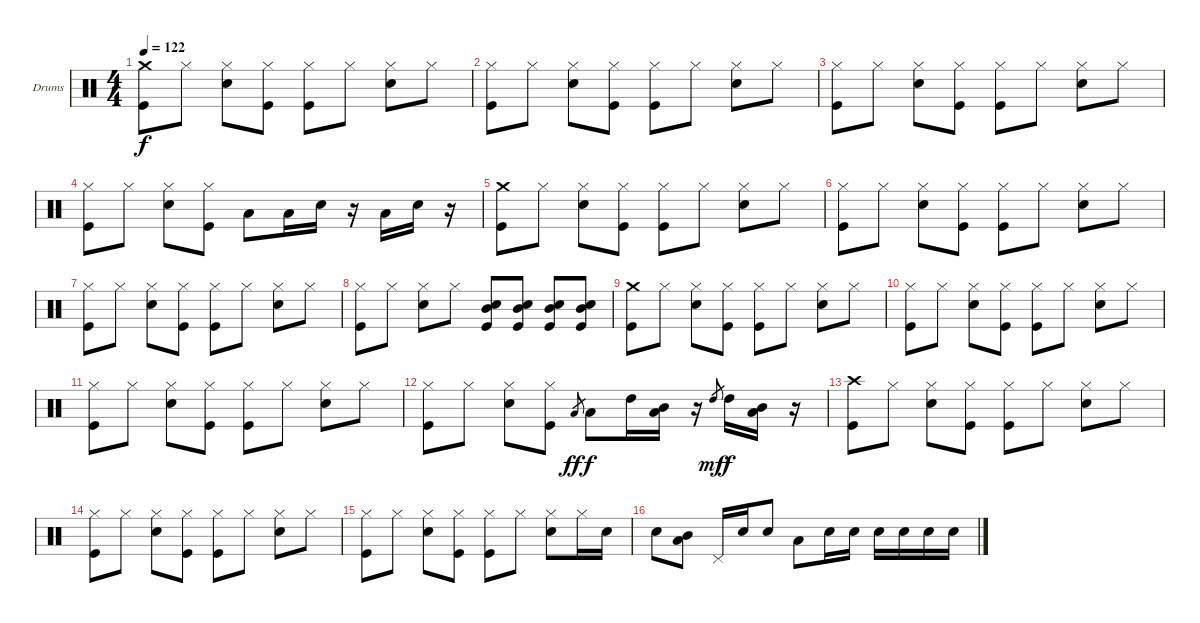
\bracketExtendMode groupsimilarinstruments
\firstSystemTrackNameOrientation horizontal
\otherSystemsTrackNameOrientation horizontal
\track ("Drumkit" "Drums") {instrument percussion}
\staff {score}
\articulation defaults
\ts (4 4)
\tempo 122
\clef neutral
\ks c
("Crash medium (hit)" "Kick (hit)").8{dy f} "Hi-Hat (closed)".8 ("Hi-Hat (closed)" "Snare (hit) 2").8 ("Hi-Hat (closed)" "Kick (hit)").8 ("Hi-Hat (closed)" "Kick (hit)").8 "Hi-Hat (closed)".8 ("Hi-Hat (closed)" "Snare (hit) 2").8 "Hi-Hat (closed)".8 |
("Hi-Hat (closed)" "Kick (hit)").8 "Hi-Hat (closed)".8 ("Hi-Hat (closed)" "Snare (hit) 2").8 ("Hi-Hat (closed)" "Kick (hit)").8 ("Hi-Hat (closed)" "Kick (hit)").8 "Hi-Hat (closed)".8 ("Hi-Hat (closed)" "Snare (hit) 2").8 "Hi-Hat (closed)".8 |
("Hi-Hat (closed)" "Kick (hit)").8 "Hi-Hat (closed)".8 ("Hi-Hat (closed)" "Snare (hit) 2").8 ("Hi-Hat (closed)" "Kick (hit)").8 ("Hi-Hat (closed)" "Kick (hit)").8 "Hi-Hat (closed)".8 ("Hi-Hat (closed)" "Snare (hit) 2").8 "Hi-Hat (closed)".8 |
("Hi-Hat (closed)" "Kick (hit)").8 "Hi-Hat (closed)".8 ("Hi-Hat (closed)" "Snare (hit) 2").8 ("Hi-Hat (closed)" "Kick (hit)").8 "Low Tom (hit)".8 "Low Tom (hit)".16 "Snare (hit) 2".16 r.16 "Low Tom (hit)".16 "Snare (hit) 2".16 r.16 |
("Crash medium (hit)" "Kick (hit)").8 "Hi-Hat (closed)".8 ("Hi-Hat (closed)" "Snare (hit) 2").8 ("Hi-Hat (closed)" "Kick (hit)").8 ("Hi-Hat (closed)" "Kick (hit)").8 "Hi-Hat (closed)".8 ("Hi-Hat (closed)" "Snare (hit) 2").8 "Hi-Hat (closed)".8 |
("Hi-Hat (closed)" "Kick (hit)").8 "Hi-Hat (closed)".8 ("Hi-Hat (closed)" "Snare (hit) 2").8 ("Hi-Hat (closed)" "Kick (hit)").8 ("Hi-Hat (closed)" "Kick (hit)").8 "Hi-Hat (closed)".8 ("Hi-Hat (closed)" "Snare (hit) 2").8 "Hi-Hat (closed)".8 |
("Hi-Hat (closed)" "Kick (hit)").8 "Hi-Hat (closed)".8 ("Hi-Hat (closed)" "Snare (hit) 2").8 ("Hi-Hat (closed)" "Kick (hit)").8 ("Hi-Hat (closed)" "Kick (hit)").8 "Hi-Hat (closed)".8 ("Hi-Hat (closed)" "Snare (hit) 2").8 "Hi-Hat (closed)".8 |
("Hi-Hat (closed)" "Kick (hit)").8 "Hi-Hat (closed)".8 ("Hi-Hat (closed)" "Snare (hit) 2").8 "Hi-Hat (closed)".8 ("Mid Tom (hit)" "Snare (hit) 2" "Kick (hit)").8 ("Mid Tom (hit)" "Snare (hit) 2" "Kick (hit)").8 ("Mid Tom (hit)" "Snare (hit) 2" "Kick (hit)").8 ("Mid Tom (hit)" "Snare (hit) 2" "Kick (hit)").8 |
("Crash medium (hit)" "Kick (hit)").8 "Hi-Hat (closed)".8 ("Hi-Hat (closed)" "Snare (hit) 2").8 ("Hi-Hat (closed)" "Kick (hit)").8 ("Hi-Hat (closed)" "Kick (hit)").8 "Hi-Hat (closed)".8 ("Hi-Hat (closed)" "Snare (hit) 2").8 "Hi-Hat (closed)".8 |
("Hi-Hat (closed)" "Kick (hit)").8 "Hi-Hat (closed)".8 ("Hi-Hat (closed)" "Snare (hit) 2").8 ("Hi-Hat (closed)" "Kick (hit)").8 ("Hi-Hat (closed)" "Kick (hit)").8 "Hi-Hat (closed)".8 ("Hi-Hat (closed)" "Snare (hit) 2").8 "Hi-Hat (closed)".8 |
("Hi-Hat (closed)" "Kick (hit)").8 "Hi-Hat (closed)".8 ("Hi-Hat (closed)" "Snare (hit) 2").8 ("Hi-Hat (closed)" "Kick (hit)").8 ("Hi-Hat (closed)" "Kick (hit)").8 "Hi-Hat (closed)".8 ("Hi-Hat (closed)" "Snare (hit) 2").8 "Hi-Hat (closed)".8 |
("Hi-Hat (closed)" "Kick (hit)").8 "Hi-Hat (closed)".8 ("Hi-Hat (closed)" "Snare (hit) 2").8 ("Hi-Hat (closed)" "Kick (hit)").8 "Low Tom (hit)".8{gr dy ff} "Low Tom (hit)".8{dy f} "High Tom (hit)".16 ("Mid Tom (hit)" "Low Tom (hit)").16 r.16 "High Tom (hit)".8{gr dy mf} "High Tom (hit)".16{dy f} ("Mid Tom (hit)" "Low Tom (hit)").16 r.16 |
("Crash high (hit)" "Kick (hit)").8 "Hi-Hat (closed)".8 ("Hi-Hat (closed)" "Snare (hit) 2").8 ("Hi-Hat (closed)" "Kick (hit)").8 ("Hi-Hat (closed)" "Kick (hit)").8 "Hi-Hat (closed)".8 ("Hi-Hat (closed)" "Snare (hit) 2").8 "Hi-Hat (closed)".8 |
("Hi-Hat (closed)" "Kick (hit)").8 "Hi-Hat (closed)".8 ("Hi-Hat (closed)" "Snare (hit) 2").8 ("Hi-Hat (closed)" "Kick (hit)").8 ("Hi-Hat (closed)" "Kick (hit)").8 "Hi-Hat (closed)".8 ("Hi-Hat (closed)" "Snare (hit) 2").8 "Hi-Hat (closed)".8 |
("Hi-Hat (closed)" "Kick (hit)").8 "Hi-Hat (closed)".8 ("Hi-Hat (closed)" "Snare (hit) 2").8 ("Hi-Hat (closed)" "Kick (hit)").8 ("Hi-Hat (closed)" "Kick (hit)").8 "Hi-Hat (closed)".8 ("Hi-Hat (closed)" "Snare (hit) 2").8 "Hi-Hat (closed)".16 "Snare (hit) 2".16 |
"Snare (hit) 2".8 ("Mid Tom (hit)" "Low Tom (hit)").8 "Pedal Hi-Hat (hit)".16 "Snare (hit) 2".16 "Snare (hit) 2".8 "Low Tom (hit)".8 "Snare (hit) 2".16 "Snare (hit) 2".16 "Snare (hit) 2".16 "Snare (hit) 2".16 "Snare (hit) 2".16 "Snare (hit) 2".16
